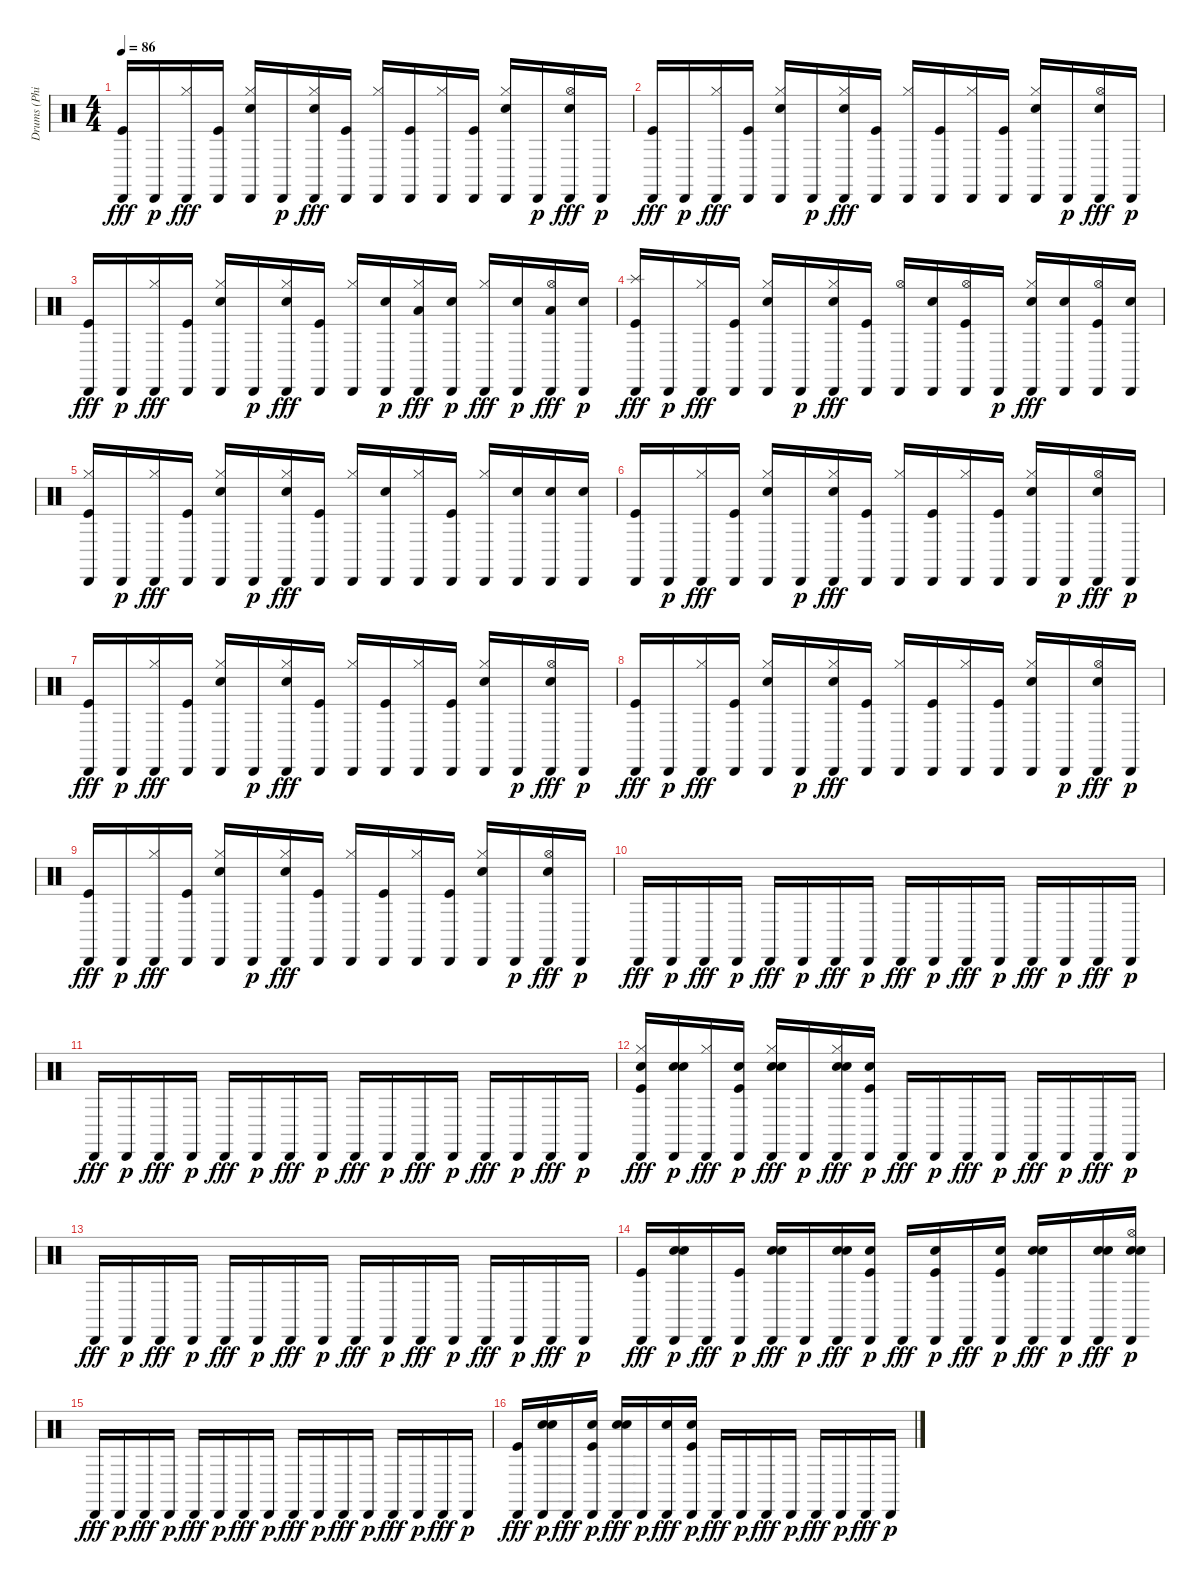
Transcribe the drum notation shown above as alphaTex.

\track ("Drums (Phil)" "Drums (Phi") {instrument percussion}
\staff {score}
\articulation defaults
\ts (4 4)
\tempo 86
\clef neutral
\ks c
("Cabasa (hit)" "Kick (hit)").16{dy fff} "Cabasa (hit)".16{dy p} ("Cabasa (hit)" "Hi-Hat (closed)").16{dy fff} ("Cabasa (hit)" "Kick (hit)").16 ("Cabasa (hit)" "Hi-Hat (closed)" "Snare (hit) 2").16 "Cabasa (hit)".16{dy p} ("Cabasa (hit)" "Hi-Hat (closed)" "Snare (hit) 2").16{dy fff} ("Cabasa (hit)" "Kick (hit)").16 ("Cabasa (hit)" "Hi-Hat (closed)").16 ("Cabasa (hit)" "Kick (hit)").16 ("Cabasa (hit)" "Hi-Hat (closed)").16 ("Cabasa (hit)" "Kick (hit)").16 ("Cabasa (hit)" "Hi-Hat (closed)" "Snare (hit) 2").16 "Cabasa (hit)".16{dy p} ("Cabasa (hit)" "Hi-Hat (open)" "Snare (hit) 2").16{dy fff} "Cabasa (hit)".16{dy p} |
("Cabasa (hit)" "Kick (hit)").16{dy fff} "Cabasa (hit)".16{dy p} ("Cabasa (hit)" "Hi-Hat (closed)").16{dy fff} ("Cabasa (hit)" "Kick (hit)").16 ("Cabasa (hit)" "Hi-Hat (closed)" "Snare (hit) 2").16 "Cabasa (hit)".16{dy p} ("Cabasa (hit)" "Hi-Hat (closed)" "Snare (hit) 2").16{dy fff} ("Cabasa (hit)" "Kick (hit)").16 ("Cabasa (hit)" "Hi-Hat (closed)").16 ("Cabasa (hit)" "Kick (hit)").16 ("Cabasa (hit)" "Hi-Hat (closed)").16 ("Cabasa (hit)" "Kick (hit)").16 ("Cabasa (hit)" "Hi-Hat (closed)" "Snare (hit) 2").16 "Cabasa (hit)".16{dy p} ("Cabasa (hit)" "Hi-Hat (open)" "Snare (hit) 2").16{dy fff} "Cabasa (hit)".16{dy p} |
("Cabasa (hit)" "Kick (hit)").16{dy fff} "Cabasa (hit)".16{dy p} ("Cabasa (hit)" "Hi-Hat (closed)").16{dy fff} ("Cabasa (hit)" "Kick (hit)").16 ("Cabasa (hit)" "Hi-Hat (closed)" "Snare (hit) 2").16 "Cabasa (hit)".16{dy p} ("Cabasa (hit)" "Hi-Hat (closed)" "Snare (hit) 2").16{dy fff} ("Cabasa (hit)" "Kick (hit)").16 ("Cabasa (hit)" "Hi-Hat (closed)").16 ("Cabasa (hit)" "Snare (hit) 2").16{dy p} ("Cabasa (hit)" "Hi-Hat (closed)" "Low Tom (hit)").16{dy fff} ("Cabasa (hit)" "Snare (hit) 2").16{dy p} ("Cabasa (hit)" "Hi-Hat (closed)").16{dy fff} ("Cabasa (hit)" "Snare (hit) 2").16{dy p} ("Cabasa (hit)" "Hi-Hat (open)" "Low Tom (hit)").16{dy fff} ("Cabasa (hit)" "Snare (hit) 2").16{dy p} |
("Cabasa (hit)" "Splash (hit)" "Kick (hit)").16{dy fff} "Cabasa (hit)".16{dy p} ("Cabasa (hit)" "Hi-Hat (closed)").16{dy fff} ("Cabasa (hit)" "Kick (hit)").16 ("Cabasa (hit)" "Hi-Hat (closed)" "Snare (hit) 2").16 "Cabasa (hit)".16{dy p} ("Cabasa (hit)" "Hi-Hat (closed)" "Snare (hit) 2").16{dy fff} ("Cabasa (hit)" "Kick (hit)").16 ("Cabasa (hit)" "Hi-Hat (open)").16 ("Cabasa (hit)" "Snare (hit) 2").16 ("Cabasa (hit)" "Hi-Hat (open)" "Kick (hit)").16 "Cabasa (hit)".16{dy p} ("Cabasa (hit)" "Hi-Hat (closed)" "Snare (hit) 2").16{dy fff} ("Cabasa (hit)" "Snare (hit) 2").16 ("Cabasa (hit)" "Hi-Hat (open)" "Kick (hit)").16 ("Cabasa (hit)" "Snare (hit) 2").16 |
("Cabasa (hit)" "Hi-Hat (closed)" "Kick (hit)").16 "Cabasa (hit)".16{dy p} ("Cabasa (hit)" "Hi-Hat (closed)").16{dy fff} ("Cabasa (hit)" "Kick (hit)").16 ("Cabasa (hit)" "Hi-Hat (closed)" "Snare (hit) 2").16 "Cabasa (hit)".16{dy p} ("Cabasa (hit)" "Hi-Hat (closed)" "Snare (hit) 2").16{dy fff} ("Cabasa (hit)" "Kick (hit)").16 ("Cabasa (hit)" "Hi-Hat (closed)").16 ("Cabasa (hit)" "Snare (hit) 2").16 ("Cabasa (hit)" "Hi-Hat (closed)").16 ("Cabasa (hit)" "Kick (hit)").16 ("Cabasa (hit)" "Hi-Hat (closed)").16 ("Cabasa (hit)" "Snare (hit) 2").16 ("Cabasa (hit)" "Snare (hit) 2").16 ("Cabasa (hit)" "Snare (hit) 2").16 |
("Cabasa (hit)" "Kick (hit)").16 "Cabasa (hit)".16{dy p} ("Cabasa (hit)" "Hi-Hat (closed)").16{dy fff} ("Cabasa (hit)" "Kick (hit)").16 ("Cabasa (hit)" "Hi-Hat (closed)" "Snare (hit) 2").16 "Cabasa (hit)".16{dy p} ("Cabasa (hit)" "Hi-Hat (closed)" "Snare (hit) 2").16{dy fff} ("Cabasa (hit)" "Kick (hit)").16 ("Cabasa (hit)" "Hi-Hat (closed)").16 ("Cabasa (hit)" "Kick (hit)").16 ("Cabasa (hit)" "Hi-Hat (closed)").16 ("Cabasa (hit)" "Kick (hit)").16 ("Cabasa (hit)" "Hi-Hat (closed)" "Snare (hit) 2").16 "Cabasa (hit)".16{dy p} ("Cabasa (hit)" "Hi-Hat (open)" "Snare (hit) 2").16{dy fff} "Cabasa (hit)".16{dy p} |
("Cabasa (hit)" "Kick (hit)").16{dy fff} "Cabasa (hit)".16{dy p} ("Cabasa (hit)" "Hi-Hat (closed)").16{dy fff} ("Cabasa (hit)" "Kick (hit)").16 ("Cabasa (hit)" "Hi-Hat (closed)" "Snare (hit) 2").16 "Cabasa (hit)".16{dy p} ("Cabasa (hit)" "Hi-Hat (closed)" "Snare (hit) 2").16{dy fff} ("Cabasa (hit)" "Kick (hit)").16 ("Cabasa (hit)" "Hi-Hat (closed)").16 ("Cabasa (hit)" "Kick (hit)").16 ("Cabasa (hit)" "Hi-Hat (closed)").16 ("Cabasa (hit)" "Kick (hit)").16 ("Cabasa (hit)" "Hi-Hat (closed)" "Snare (hit) 2").16 "Cabasa (hit)".16{dy p} ("Cabasa (hit)" "Hi-Hat (open)" "Snare (hit) 2").16{dy fff} "Cabasa (hit)".16{dy p} |
("Cabasa (hit)" "Kick (hit)").16{dy fff} "Cabasa (hit)".16{dy p} ("Cabasa (hit)" "Hi-Hat (closed)").16{dy fff} ("Cabasa (hit)" "Kick (hit)").16 ("Cabasa (hit)" "Hi-Hat (closed)" "Snare (hit) 2").16 "Cabasa (hit)".16{dy p} ("Cabasa (hit)" "Hi-Hat (closed)" "Snare (hit) 2").16{dy fff} ("Cabasa (hit)" "Kick (hit)").16 ("Cabasa (hit)" "Hi-Hat (closed)").16 ("Cabasa (hit)" "Kick (hit)").16 ("Cabasa (hit)" "Hi-Hat (closed)").16 ("Cabasa (hit)" "Kick (hit)").16 ("Cabasa (hit)" "Hi-Hat (closed)" "Snare (hit) 2").16 "Cabasa (hit)".16{dy p} ("Cabasa (hit)" "Hi-Hat (open)" "Snare (hit) 2").16{dy fff} "Cabasa (hit)".16{dy p} |
("Cabasa (hit)" "Kick (hit)").16{dy fff} "Cabasa (hit)".16{dy p} ("Cabasa (hit)" "Hi-Hat (closed)").16{dy fff} ("Cabasa (hit)" "Kick (hit)").16 ("Cabasa (hit)" "Hi-Hat (closed)" "Snare (hit) 2").16 "Cabasa (hit)".16{dy p} ("Cabasa (hit)" "Hi-Hat (closed)" "Snare (hit) 2").16{dy fff} ("Cabasa (hit)" "Kick (hit)").16 ("Cabasa (hit)" "Hi-Hat (closed)").16 ("Cabasa (hit)" "Kick (hit)").16 ("Cabasa (hit)" "Hi-Hat (closed)").16 ("Cabasa (hit)" "Kick (hit)").16 ("Cabasa (hit)" "Hi-Hat (closed)" "Snare (hit) 2").16 "Cabasa (hit)".16{dy p} ("Cabasa (hit)" "Hi-Hat (open)" "Snare (hit) 2").16{dy fff} "Cabasa (hit)".16{dy p} |
"Cabasa (hit)".16{dy fff} "Cabasa (hit)".16{dy p} "Cabasa (hit)".16{dy fff} "Cabasa (hit)".16{dy p} "Cabasa (hit)".16{dy fff} "Cabasa (hit)".16{dy p} "Cabasa (hit)".16{dy fff} "Cabasa (hit)".16{dy p} "Cabasa (hit)".16{dy fff} "Cabasa (hit)".16{dy p} "Cabasa (hit)".16{dy fff} "Cabasa (hit)".16{dy p} "Cabasa (hit)".16{dy fff} "Cabasa (hit)".16{dy p} "Cabasa (hit)".16{dy fff} "Cabasa (hit)".16{dy p} |
"Cabasa (hit)".16{dy fff} "Cabasa (hit)".16{dy p} "Cabasa (hit)".16{dy fff} "Cabasa (hit)".16{dy p} "Cabasa (hit)".16{dy fff} "Cabasa (hit)".16{dy p} "Cabasa (hit)".16{dy fff} "Cabasa (hit)".16{dy p} "Cabasa (hit)".16{dy fff} "Cabasa (hit)".16{dy p} "Cabasa (hit)".16{dy fff} "Cabasa (hit)".16{dy p} "Cabasa (hit)".16{dy fff} "Cabasa (hit)".16{dy p} "Cabasa (hit)".16{dy fff} "Cabasa (hit)".16{dy p} |
("Cabasa (hit)" "Hi-Hat (closed)" "Hand Clap (hit)" "Kick (hit)").16{dy fff} ("Cabasa (hit)" "Hand Clap (hit)" "Snare (hit) 2").16{dy p} ("Cabasa (hit)" "Hi-Hat (closed)").16{dy fff} ("Cabasa (hit)" "Hand Clap (hit)" "Kick (hit)").16{dy p} ("Cabasa (hit)" "Hi-Hat (closed)" "Hand Clap (hit)" "Snare (hit) 2").16{dy fff} "Cabasa (hit)".16{dy p} ("Cabasa (hit)" "Hi-Hat (closed)" "Hand Clap (hit)" "Snare (hit) 2").16{dy fff} ("Cabasa (hit)" "Hand Clap (hit)" "Kick (hit)").16{dy p} "Cabasa (hit)".16{dy fff} "Cabasa (hit)".16{dy p} "Cabasa (hit)".16{dy fff} "Cabasa (hit)".16{dy p} "Cabasa (hit)".16{dy fff} "Cabasa (hit)".16{dy p} "Cabasa (hit)".16{dy fff} "Cabasa (hit)".16{dy p} |
"Cabasa (hit)".16{dy fff} "Cabasa (hit)".16{dy p} "Cabasa (hit)".16{dy fff} "Cabasa (hit)".16{dy p} "Cabasa (hit)".16{dy fff} "Cabasa (hit)".16{dy p} "Cabasa (hit)".16{dy fff} "Cabasa (hit)".16{dy p} "Cabasa (hit)".16{dy fff} "Cabasa (hit)".16{dy p} "Cabasa (hit)".16{dy fff} "Cabasa (hit)".16{dy p} "Cabasa (hit)".16{dy fff} "Cabasa (hit)".16{dy p} "Cabasa (hit)".16{dy fff} "Cabasa (hit)".16{dy p} |
("Cabasa (hit)" "Kick (hit)").16{dy fff} ("Cabasa (hit)" "Hand Clap (hit)" "Snare (hit) 2").16{dy p} "Cabasa (hit)".16{dy fff} ("Cabasa (hit)" "Kick (hit)").16{dy p} ("Cabasa (hit)" "Hand Clap (hit)" "Snare (hit) 2").16{dy fff} "Cabasa (hit)".16{dy p} ("Cabasa (hit)" "Hand Clap (hit)" "Snare (hit) 2").16{dy fff} ("Cabasa (hit)" "Hand Clap (hit)" "Kick (hit)").16{dy p} "Cabasa (hit)".16{dy fff} ("Cabasa (hit)" "Hand Clap (hit)" "Kick (hit)").16{dy p} "Cabasa (hit)".16{dy fff} ("Cabasa (hit)" "Hand Clap (hit)" "Kick (hit)").16{dy p} ("Cabasa (hit)" "Hand Clap (hit)" "Snare (hit) 2").16{dy fff} "Cabasa (hit)".16{dy p} ("Cabasa (hit)" "Hand Clap (hit)" "Snare (hit) 2").16{dy fff} ("Cabasa (hit)" "Hi-Hat (open)" "Hand Clap (hit)" "Snare (hit) 2").16{dy p} |
"Cabasa (hit)".16{dy fff} "Cabasa (hit)".16{dy p} "Cabasa (hit)".16{dy fff} "Cabasa (hit)".16{dy p} "Cabasa (hit)".16{dy fff} "Cabasa (hit)".16{dy p} "Cabasa (hit)".16{dy fff} "Cabasa (hit)".16{dy p} "Cabasa (hit)".16{dy fff} "Cabasa (hit)".16{dy p} "Cabasa (hit)".16{dy fff} "Cabasa (hit)".16{dy p} "Cabasa (hit)".16{dy fff} "Cabasa (hit)".16{dy p} "Cabasa (hit)".16{dy fff} "Cabasa (hit)".16{dy p} |
("Cabasa (hit)" "Kick (hit)").16{dy fff} ("Cabasa (hit)" "Hand Clap (hit)" "Snare (hit) 2").16{dy p} "Cabasa (hit)".16{dy fff} ("Cabasa (hit)" "Hand Clap (hit)" "Kick (hit)").16{dy p} ("Cabasa (hit)" "Hand Clap (hit)" "Snare (hit) 2").16{dy fff} "Cabasa (hit)".16{dy p} ("Cabasa (hit)" "Snare (hit) 2").16{dy fff} ("Cabasa (hit)" "Hand Clap (hit)" "Kick (hit)").16{dy p} "Cabasa (hit)".16{dy fff} "Cabasa (hit)".16{dy p} "Cabasa (hit)".16{dy fff} "Cabasa (hit)".16{dy p} "Cabasa (hit)".16{dy fff} "Cabasa (hit)".16{dy p} "Cabasa (hit)".16{dy fff} "Cabasa (hit)".16{dy p}
